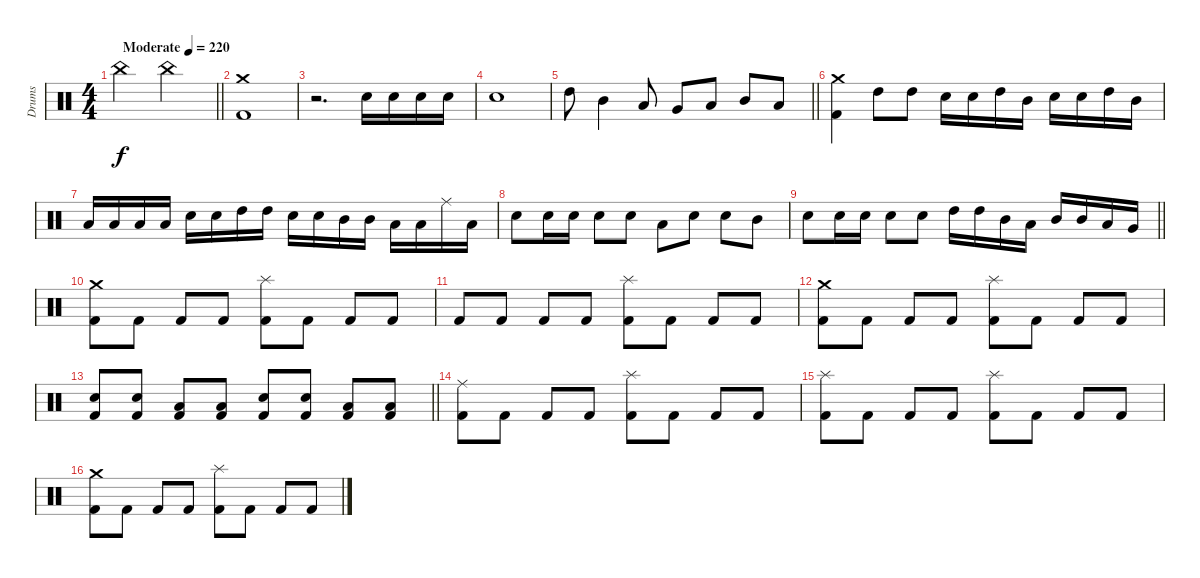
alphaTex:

\track ("Drums" "Drums") {instrument percussion}
\staff {score}
\articulation defaults
\ts (4 4)
\section ("" "")
\tempo (220 "Moderate")
\clef neutral
\barLineRight lightlight
\ks c "China (hit)".2{dy f} "China (hit)".2
|
\section ("" "")
("Crash medium (hit)" "Kick (hit) 2").1 |
r.2{d} "Electric Snare (hit)".16 "Electric Snare (hit)".16 "Electric Snare (hit)".16 "Electric Snare (hit)".16 |
"Electric Snare (hit)".1 |
\barLineRight lightlight "High Tom (hit)".8 "Mid Tom (hit)".4 "Low Tom (hit)".8 "Very Low Tom (hit)".8 "Low Tom (hit)".8 "Mid Tom (hit)".8 "Low Tom (hit)".8
|
("Crash medium (hit)" "Kick (hit) 2").4 "High Tom (hit)".8 "High Tom (hit)".8 "Electric Snare (hit)".16 "Electric Snare (hit)".16 "High Tom (hit)".16 "Mid Tom (hit)".16 "Electric Snare (hit)".16 "Electric Snare (hit)".16 "High Tom (hit)".16 "Mid Tom (hit)".16 |
"Low Tom (hit)".16 "Low Tom (hit)".16 "Low Tom (hit)".16 "Low Tom (hit)".16 "Electric Snare (hit)".16 "Electric Snare (hit)".16 "High Tom (hit)".16 "High Tom (hit)".16 "Electric Snare (hit)".16 "Electric Snare (hit)".16 "Mid Tom (hit)".16 "Mid Tom (hit)".16 "Low Tom (hit)".16 "Low Tom (hit)".16 "Ride (middle)".16 "Low Tom (hit)".16 |
"Electric Snare (hit)".8 "Electric Snare (hit)".16 "Electric Snare (hit)".16 "Electric Snare (hit)".8 "Electric Snare (hit)".8 "Low Tom (hit)".8 "Electric Snare (hit)".8 "Electric Snare (hit)".8 "Mid Tom (hit)".8 |
\barLineRight lightlight "Electric Snare (hit)".8 "Electric Snare (hit)".16 "Electric Snare (hit)".16 "Electric Snare (hit)".8 "Electric Snare (hit)".8 "High Tom (hit)".16 "High Tom (hit)".16 "Mid Tom (hit)".16 "Low Tom (hit)".16 "Mid Tom (hit)".16 "Mid Tom (hit)".16 "Low Tom (hit)".16 "Very Low Tom (hit)".16
|
\section ("" "")
("Crash medium (hit)" "Kick (hit) 2").8 "Kick (hit) 2".8 "Kick (hit) 2".8 "Kick (hit) 2".8 ("Splash (hit)" "Kick (hit) 2").8 "Kick (hit) 2".8 "Kick (hit) 2".8 "Kick (hit) 2".8 |
"Kick (hit) 2".8 "Kick (hit) 2".8 "Kick (hit) 2".8 "Kick (hit) 2".8 ("Splash (hit)" "Kick (hit) 2").8 "Kick (hit) 2".8 "Kick (hit) 2".8 "Kick (hit) 2".8 |
("Crash medium (hit)" "Kick (hit) 2").8 "Kick (hit) 2".8 "Kick (hit) 2".8 "Kick (hit) 2".8 ("Splash (hit)" "Kick (hit) 2").8 "Kick (hit) 2".8 "Kick (hit) 2".8 "Kick (hit) 2".8 |
\barLineRight lightlight
("Electric Snare (hit)" "Kick (hit) 2").8 ("Electric Snare (hit)" "Kick (hit) 2").8 ("Low Tom (hit)" "Kick (hit) 2").8 ("Low Tom (hit)" "Kick (hit) 2").8 ("Electric Snare (hit)" "Kick (hit) 2").8 ("Electric Snare (hit)" "Kick (hit) 2").8 ("Low Tom (hit)" "Kick (hit) 2").8 ("Low Tom (hit)" "Kick (hit) 2").8 |
("Ride (middle)" "Kick (hit) 2").8 "Kick (hit) 2".8 "Kick (hit) 2".8 "Kick (hit) 2".8 ("Splash (hit)" "Kick (hit) 2").8 "Kick (hit) 2".8 "Kick (hit) 2".8 "Kick (hit) 2".8 |
("Splash (hit)" "Kick (hit) 2").8 "Kick (hit) 2".8 "Kick (hit) 2".8 "Kick (hit) 2".8 ("Splash (hit)" "Kick (hit) 2").8 "Kick (hit) 2".8 "Kick (hit) 2".8 "Kick (hit) 2".8 |
("Crash medium (hit)" "Kick (hit) 2").8 "Kick (hit) 2".8 "Kick (hit) 2".8 "Kick (hit) 2".8 ("Splash (hit)" "Kick (hit) 2").8 "Kick (hit) 2".8 "Kick (hit) 2".8 "Kick (hit) 2".8
